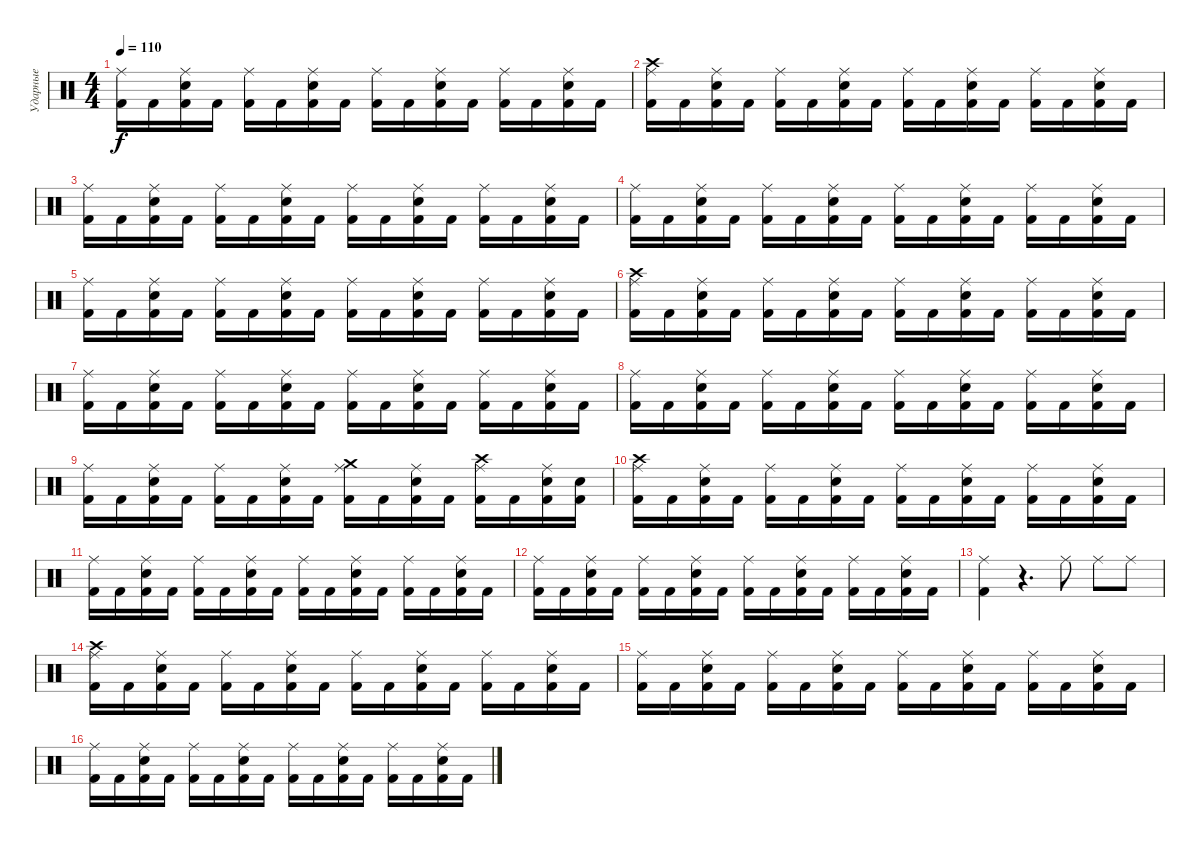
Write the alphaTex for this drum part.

\track ("Ударные" "Ударные") {instrument percussion}
\staff {score}
\articulation defaults
\ts (4 4)
\tempo 110
\clef neutral
\ks c
("Ride (middle)" "Kick (hit) 2").16{dy f} "Kick (hit) 2".16 ("Ride (middle)" "Snare (hit) 2" "Kick (hit) 2").16 "Kick (hit) 2".16 ("Ride (middle)" "Kick (hit) 2").16 "Kick (hit) 2".16 ("Ride (middle)" "Snare (hit) 2" "Kick (hit) 2").16 "Kick (hit) 2".16 ("Ride (middle)" "Kick (hit) 2").16 "Kick (hit) 2".16 ("Ride (middle)" "Snare (hit) 2" "Kick (hit) 2").16 "Kick (hit) 2".16 ("Ride (middle)" "Kick (hit) 2").16 "Kick (hit) 2".16 ("Ride (middle)" "Snare (hit) 2" "Kick (hit) 2").16 "Kick (hit) 2".16 |
("Ride (middle)" "Crash high (hit)" "Kick (hit) 2").16 "Kick (hit) 2".16 ("Ride (middle)" "Snare (hit) 2" "Kick (hit) 2").16 "Kick (hit) 2".16 ("Ride (middle)" "Kick (hit) 2").16 "Kick (hit) 2".16 ("Ride (middle)" "Snare (hit) 2" "Kick (hit) 2").16 "Kick (hit) 2".16 ("Ride (middle)" "Kick (hit) 2").16 "Kick (hit) 2".16 ("Ride (middle)" "Snare (hit) 2" "Kick (hit) 2").16 "Kick (hit) 2".16 ("Ride (middle)" "Kick (hit) 2").16 "Kick (hit) 2".16 ("Ride (middle)" "Snare (hit) 2" "Kick (hit) 2").16 "Kick (hit) 2".16 |
("Ride (middle)" "Kick (hit) 2").16 "Kick (hit) 2".16 ("Ride (middle)" "Snare (hit) 2" "Kick (hit) 2").16 "Kick (hit) 2".16 ("Ride (middle)" "Kick (hit) 2").16 "Kick (hit) 2".16 ("Ride (middle)" "Snare (hit) 2" "Kick (hit) 2").16 "Kick (hit) 2".16 ("Ride (middle)" "Kick (hit) 2").16 "Kick (hit) 2".16 ("Ride (middle)" "Snare (hit) 2" "Kick (hit) 2").16 "Kick (hit) 2".16 ("Ride (middle)" "Kick (hit) 2").16 "Kick (hit) 2".16 ("Ride (middle)" "Snare (hit) 2" "Kick (hit) 2").16 "Kick (hit) 2".16 |
("Ride (middle)" "Kick (hit) 2").16 "Kick (hit) 2".16 ("Ride (middle)" "Snare (hit) 2" "Kick (hit) 2").16 "Kick (hit) 2".16 ("Ride (middle)" "Kick (hit) 2").16 "Kick (hit) 2".16 ("Ride (middle)" "Snare (hit) 2" "Kick (hit) 2").16 "Kick (hit) 2".16 ("Ride (middle)" "Kick (hit) 2").16 "Kick (hit) 2".16 ("Ride (middle)" "Snare (hit) 2" "Kick (hit) 2").16 "Kick (hit) 2".16 ("Ride (middle)" "Kick (hit) 2").16 "Kick (hit) 2".16 ("Ride (middle)" "Snare (hit) 2" "Kick (hit) 2").16 "Kick (hit) 2".16 |
("Ride (middle)" "Kick (hit) 2").16 "Kick (hit) 2".16 ("Ride (middle)" "Snare (hit) 2" "Kick (hit) 2").16 "Kick (hit) 2".16 ("Ride (middle)" "Kick (hit) 2").16 "Kick (hit) 2".16 ("Ride (middle)" "Snare (hit) 2" "Kick (hit) 2").16 "Kick (hit) 2".16 ("Ride (middle)" "Kick (hit) 2").16 "Kick (hit) 2".16 ("Ride (middle)" "Snare (hit) 2" "Kick (hit) 2").16 "Kick (hit) 2".16 ("Ride (middle)" "Kick (hit) 2").16 "Kick (hit) 2".16 ("Ride (middle)" "Snare (hit) 2" "Kick (hit) 2").16 "Kick (hit) 2".16 |
("Ride (middle)" "Crash high (hit)" "Kick (hit) 2").16 "Kick (hit) 2".16 ("Ride (middle)" "Snare (hit) 2" "Kick (hit) 2").16 "Kick (hit) 2".16 ("Ride (middle)" "Kick (hit) 2").16 "Kick (hit) 2".16 ("Ride (middle)" "Snare (hit) 2" "Kick (hit) 2").16 "Kick (hit) 2".16 ("Ride (middle)" "Kick (hit) 2").16 "Kick (hit) 2".16 ("Ride (middle)" "Snare (hit) 2" "Kick (hit) 2").16 "Kick (hit) 2".16 ("Ride (middle)" "Kick (hit) 2").16 "Kick (hit) 2".16 ("Ride (middle)" "Snare (hit) 2" "Kick (hit) 2").16 "Kick (hit) 2".16 |
("Ride (middle)" "Kick (hit) 2").16 "Kick (hit) 2".16 ("Ride (middle)" "Snare (hit) 2" "Kick (hit) 2").16 "Kick (hit) 2".16 ("Ride (middle)" "Kick (hit) 2").16 "Kick (hit) 2".16 ("Ride (middle)" "Snare (hit) 2" "Kick (hit) 2").16 "Kick (hit) 2".16 ("Ride (middle)" "Kick (hit) 2").16 "Kick (hit) 2".16 ("Ride (middle)" "Snare (hit) 2" "Kick (hit) 2").16 "Kick (hit) 2".16 ("Ride (middle)" "Kick (hit) 2").16 "Kick (hit) 2".16 ("Ride (middle)" "Snare (hit) 2" "Kick (hit) 2").16 "Kick (hit) 2".16 |
("Ride (middle)" "Kick (hit) 2").16 "Kick (hit) 2".16 ("Ride (middle)" "Snare (hit) 2" "Kick (hit) 2").16 "Kick (hit) 2".16 ("Ride (middle)" "Kick (hit) 2").16 "Kick (hit) 2".16 ("Ride (middle)" "Snare (hit) 2" "Kick (hit) 2").16 "Kick (hit) 2".16 ("Ride (middle)" "Kick (hit) 2").16 "Kick (hit) 2".16 ("Ride (middle)" "Snare (hit) 2" "Kick (hit) 2").16 "Kick (hit) 2".16 ("Ride (middle)" "Kick (hit) 2").16 "Kick (hit) 2".16 ("Ride (middle)" "Snare (hit) 2" "Kick (hit) 2").16 "Kick (hit) 2".16 |
("Ride (middle)" "Kick (hit) 2").16 "Kick (hit) 2".16 ("Ride (middle)" "Snare (hit) 2" "Kick (hit) 2").16 "Kick (hit) 2".16 ("Ride (middle)" "Kick (hit) 2").16 "Kick (hit) 2".16 ("Ride (middle)" "Snare (hit) 2" "Kick (hit) 2").16 "Kick (hit) 2".16 ("Ride (middle)" "Crash medium (hit)" "Kick (hit) 2").16 "Kick (hit) 2".16 ("Ride (middle)" "Snare (hit) 2" "Kick (hit) 2").16 "Kick (hit) 2".16 ("Ride (middle)" "Crash high (hit)" "Kick (hit) 2").16 "Kick (hit) 2".16 ("Ride (middle)" "Snare (hit) 2" "Kick (hit) 2").16 ("Snare (hit) 2" "Kick (hit) 2").16 |
("Ride (middle)" "Crash high (hit)" "Kick (hit) 2").16 "Kick (hit) 2".16 ("Ride (middle)" "Snare (hit) 2" "Kick (hit) 2").16 "Kick (hit) 2".16 ("Ride (middle)" "Kick (hit) 2").16 "Kick (hit) 2".16 ("Ride (middle)" "Snare (hit) 2" "Kick (hit) 2").16 "Kick (hit) 2".16 ("Ride (middle)" "Kick (hit) 2").16 "Kick (hit) 2".16 ("Ride (middle)" "Snare (hit) 2" "Kick (hit) 2").16 "Kick (hit) 2".16 ("Ride (middle)" "Kick (hit) 2").16 "Kick (hit) 2".16 ("Ride (middle)" "Snare (hit) 2" "Kick (hit) 2").16 "Kick (hit) 2".16 |
("Ride (middle)" "Kick (hit) 2").16 "Kick (hit) 2".16 ("Ride (middle)" "Snare (hit) 2" "Kick (hit) 2").16 "Kick (hit) 2".16 ("Ride (middle)" "Kick (hit) 2").16 "Kick (hit) 2".16 ("Ride (middle)" "Snare (hit) 2" "Kick (hit) 2").16 "Kick (hit) 2".16 ("Ride (middle)" "Kick (hit) 2").16 "Kick (hit) 2".16 ("Ride (middle)" "Snare (hit) 2" "Kick (hit) 2").16 "Kick (hit) 2".16 ("Ride (middle)" "Kick (hit) 2").16 "Kick (hit) 2".16 ("Ride (middle)" "Snare (hit) 2" "Kick (hit) 2").16 "Kick (hit) 2".16 |
("Ride (middle)" "Kick (hit) 2").16 "Kick (hit) 2".16 ("Ride (middle)" "Snare (hit) 2" "Kick (hit) 2").16 "Kick (hit) 2".16 ("Ride (middle)" "Kick (hit) 2").16 "Kick (hit) 2".16 ("Ride (middle)" "Snare (hit) 2" "Kick (hit) 2").16 "Kick (hit) 2".16 ("Ride (middle)" "Kick (hit) 2").16 "Kick (hit) 2".16 ("Ride (middle)" "Snare (hit) 2" "Kick (hit) 2").16 "Kick (hit) 2".16 ("Ride (middle)" "Kick (hit) 2").16 "Kick (hit) 2".16 ("Ride (middle)" "Snare (hit) 2" "Kick (hit) 2").16 "Kick (hit) 2".16 |
("Ride (middle)" "Kick (hit) 2").4 r.4{d} "Ride (middle)".8 "Ride (middle)".8 "Ride (middle)".8 |
("Ride (middle)" "Crash high (hit)" "Kick (hit) 2").16 "Kick (hit) 2".16 ("Ride (middle)" "Snare (hit) 2" "Kick (hit) 2").16 "Kick (hit) 2".16 ("Ride (middle)" "Kick (hit) 2").16 "Kick (hit) 2".16 ("Ride (middle)" "Snare (hit) 2" "Kick (hit) 2").16 "Kick (hit) 2".16 ("Ride (middle)" "Kick (hit) 2").16 "Kick (hit) 2".16 ("Ride (middle)" "Snare (hit) 2" "Kick (hit) 2").16 "Kick (hit) 2".16 ("Ride (middle)" "Kick (hit) 2").16 "Kick (hit) 2".16 ("Ride (middle)" "Snare (hit) 2" "Kick (hit) 2").16 "Kick (hit) 2".16 |
("Ride (middle)" "Kick (hit) 2").16 "Kick (hit) 2".16 ("Ride (middle)" "Snare (hit) 2" "Kick (hit) 2").16 "Kick (hit) 2".16 ("Ride (middle)" "Kick (hit) 2").16 "Kick (hit) 2".16 ("Ride (middle)" "Snare (hit) 2" "Kick (hit) 2").16 "Kick (hit) 2".16 ("Ride (middle)" "Kick (hit) 2").16 "Kick (hit) 2".16 ("Ride (middle)" "Snare (hit) 2" "Kick (hit) 2").16 "Kick (hit) 2".16 ("Ride (middle)" "Kick (hit) 2").16 "Kick (hit) 2".16 ("Ride (middle)" "Snare (hit) 2" "Kick (hit) 2").16 "Kick (hit) 2".16 |
("Ride (middle)" "Kick (hit) 2").16 "Kick (hit) 2".16 ("Ride (middle)" "Snare (hit) 2" "Kick (hit) 2").16 "Kick (hit) 2".16 ("Ride (middle)" "Kick (hit) 2").16 "Kick (hit) 2".16 ("Ride (middle)" "Snare (hit) 2" "Kick (hit) 2").16 "Kick (hit) 2".16 ("Ride (middle)" "Kick (hit) 2").16 "Kick (hit) 2".16 ("Ride (middle)" "Snare (hit) 2" "Kick (hit) 2").16 "Kick (hit) 2".16 ("Ride (middle)" "Kick (hit) 2").16 "Kick (hit) 2".16 ("Ride (middle)" "Snare (hit) 2" "Kick (hit) 2").16 "Kick (hit) 2".16
